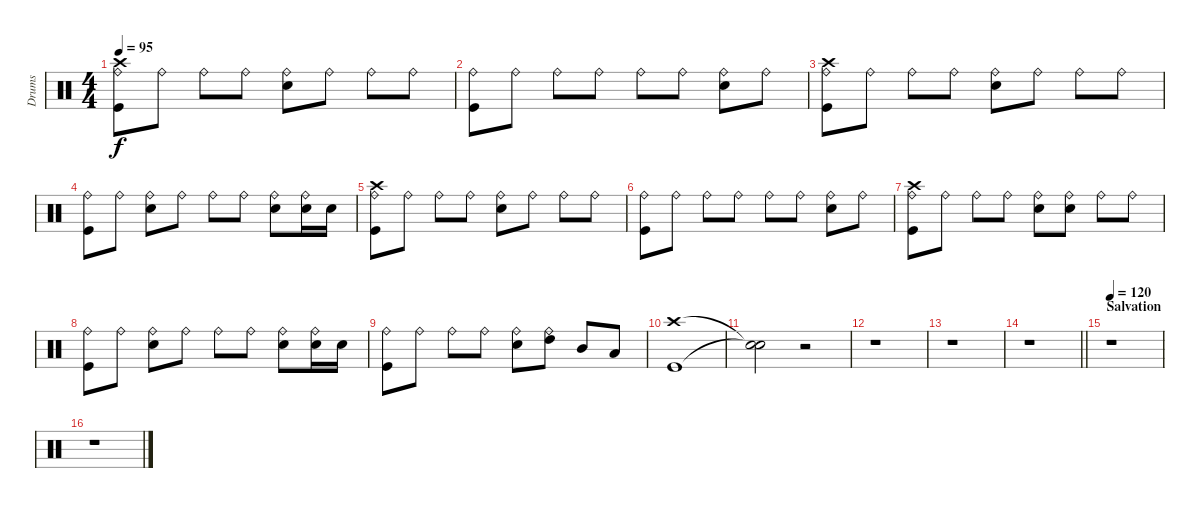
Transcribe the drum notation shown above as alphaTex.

\track ("Drums" "Drums") {instrument percussion}
\staff {score}
\articulation defaults
\ts (4 4)
\tempo 95
\clef neutral
\ks c
("Crash high (hit)" "Ride (bell)" "Kick (hit)").8{dy f} "Ride (bell)".8 "Ride (bell)".8 "Ride (bell)".8 ("Ride (bell)" "Electric Snare (hit)").8 "Ride (bell)".8 "Ride (bell)".8 "Ride (bell)".8 |
("Ride (bell)" "Kick (hit)").8 "Ride (bell)".8 "Ride (bell)".8 "Ride (bell)".8 "Ride (bell)".8 "Ride (bell)".8 ("Ride (bell)" "Electric Snare (hit)").8 "Ride (bell)".8 |
("Crash high (hit)" "Ride (bell)" "Kick (hit)").8 "Ride (bell)".8 "Ride (bell)".8 "Ride (bell)".8 ("Ride (bell)" "Electric Snare (hit)").8 "Ride (bell)".8 "Ride (bell)".8 "Ride (bell)".8 |
("Ride (bell)" "Kick (hit)").8 "Ride (bell)".8 ("Ride (bell)" "Electric Snare (hit)").8 "Ride (bell)".8 "Ride (bell)".8 "Ride (bell)".8 ("Ride (bell)" "Electric Snare (hit)").8 ("Ride (bell)" "Electric Snare (hit)").16 "Electric Snare (hit)".16 |
("Crash high (hit)" "Ride (bell)" "Kick (hit)").8 "Ride (bell)".8 "Ride (bell)".8 "Ride (bell)".8 ("Ride (bell)" "Electric Snare (hit)").8 "Ride (bell)".8 "Ride (bell)".8 "Ride (bell)".8 |
("Ride (bell)" "Kick (hit)").8 "Ride (bell)".8 "Ride (bell)".8 "Ride (bell)".8 "Ride (bell)".8 "Ride (bell)".8 ("Ride (bell)" "Electric Snare (hit)").8 "Ride (bell)".8 |
("Crash high (hit)" "Ride (bell)" "Kick (hit)").8 "Ride (bell)".8 "Ride (bell)".8 "Ride (bell)".8 ("Ride (bell)" "Electric Snare (hit)").8 ("Ride (bell)" "Electric Snare (hit)").8 "Ride (bell)".8 "Ride (bell)".8 |
("Ride (bell)" "Kick (hit)").8 "Ride (bell)".8 ("Ride (bell)" "Electric Snare (hit)").8 "Ride (bell)".8 "Ride (bell)".8 "Ride (bell)".8 ("Ride (bell)" "Electric Snare (hit)").8 ("Ride (bell)" "Electric Snare (hit)").16 "Electric Snare (hit)".16 |
("Ride (bell)" "Kick (hit)").8 "Ride (bell)".8 "Ride (bell)".8 "Ride (bell)".8 ("Ride (bell)" "Electric Snare (hit)").8 ("Ride (bell)" "High Tom (hit)").8 "Mid Tom (hit)".8 "Low Tom (hit)".8 |
("Crash high (hit)" "Kick (hit)").1 |
("Snare (hit)"{t} "Snare (hit)"{t}).2 r.2 |
r.1 |
r.1 |
\barLineRight lightlight
r.1 |
\section ("" "Salvation")
\tempo 120
r.1 |
r.1
